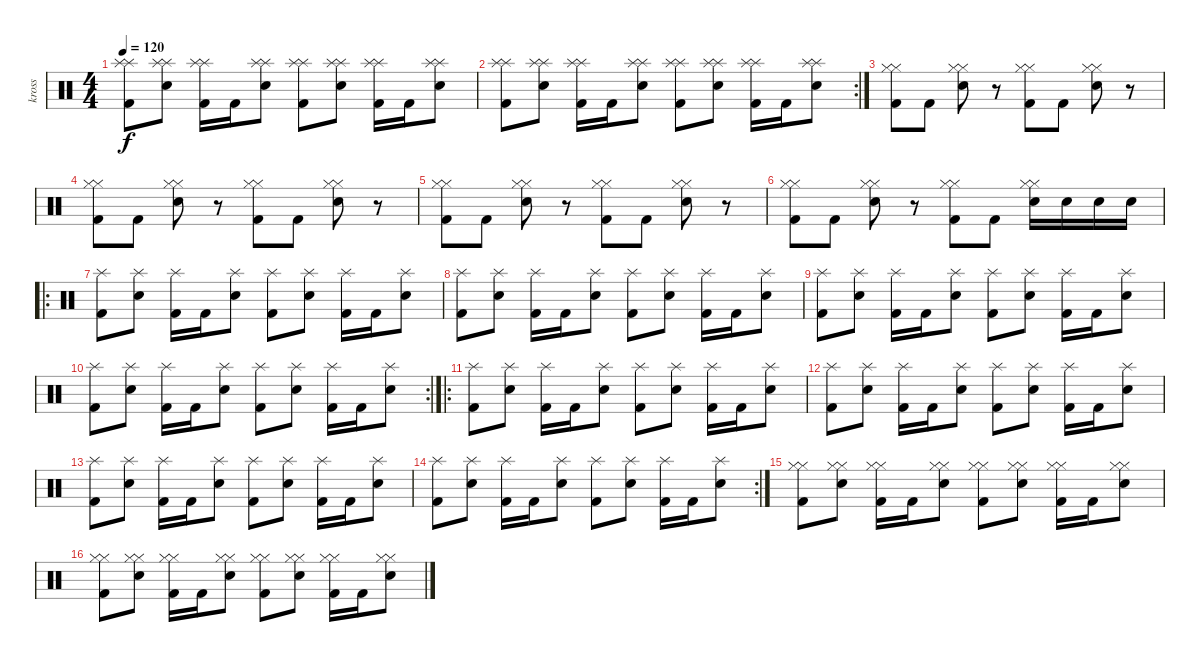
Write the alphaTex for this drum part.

\track ("kross" "kross") {instrument percussion}
\staff {score}
\articulation defaults
\ts (4 4)
\tempo 120
\clef neutral
\ks c
("Splash (hit)" "Splash (hit)" "Kick (hit) 2").8{dy f} ("Splash (hit)" "Splash (hit)" "Electric Snare (hit)").8 ("Splash (hit)" "Splash (hit)" "Kick (hit) 2").16 "Kick (hit) 2".16 ("Splash (hit)" "Splash (hit)" "Electric Snare (hit)").8 ("Splash (hit)" "Splash (hit)" "Kick (hit) 2").8 ("Splash (hit)" "Splash (hit)" "Electric Snare (hit)").8 ("Splash (hit)" "Splash (hit)" "Kick (hit) 2").16 "Kick (hit) 2".16 ("Splash (hit)" "Splash (hit)" "Electric Snare (hit)").8 |
\rc 2
("Splash (hit)" "Splash (hit)" "Kick (hit) 2").8 ("Splash (hit)" "Splash (hit)" "Electric Snare (hit)").8 ("Splash (hit)" "Splash (hit)" "Kick (hit) 2").16 "Kick (hit) 2".16 ("Splash (hit)" "Splash (hit)" "Electric Snare (hit)").8 ("Splash (hit)" "Splash (hit)" "Kick (hit) 2").8 ("Splash (hit)" "Splash (hit)" "Electric Snare (hit)").8 ("Splash (hit)" "Splash (hit)" "Kick (hit) 2").16 "Kick (hit) 2".16 ("Splash (hit)" "Splash (hit)" "Electric Snare (hit)").8 |
("Hi-Hat (closed)" "Hi-Hat (closed)" "Kick (hit) 2").8 "Kick (hit) 2".8 ("Hi-Hat (closed)" "Hi-Hat (closed)" "Electric Snare (hit)").8 r.8 ("Hi-Hat (closed)" "Hi-Hat (closed)" "Kick (hit) 2").8 "Kick (hit) 2".8 ("Hi-Hat (closed)" "Hi-Hat (closed)" "Electric Snare (hit)").8 r.8 |
("Hi-Hat (closed)" "Hi-Hat (closed)" "Kick (hit) 2").8 "Kick (hit) 2".8 ("Hi-Hat (closed)" "Hi-Hat (closed)" "Electric Snare (hit)").8 r.8 ("Hi-Hat (closed)" "Hi-Hat (closed)" "Kick (hit) 2").8 "Kick (hit) 2".8 ("Hi-Hat (closed)" "Hi-Hat (closed)" "Electric Snare (hit)").8 r.8 |
("Hi-Hat (closed)" "Hi-Hat (closed)" "Kick (hit) 2").8 "Kick (hit) 2".8 ("Hi-Hat (closed)" "Hi-Hat (closed)" "Electric Snare (hit)").8 r.8 ("Hi-Hat (closed)" "Hi-Hat (closed)" "Kick (hit) 2").8 "Kick (hit) 2".8 ("Hi-Hat (closed)" "Hi-Hat (closed)" "Electric Snare (hit)").8 r.8 |
("Hi-Hat (closed)" "Hi-Hat (closed)" "Kick (hit) 2").8 "Kick (hit) 2".8 ("Hi-Hat (closed)" "Hi-Hat (closed)" "Electric Snare (hit)").8 r.8 ("Hi-Hat (closed)" "Hi-Hat (closed)" "Kick (hit) 2").8 "Kick (hit) 2".8 ("Hi-Hat (closed)" "Hi-Hat (closed)" "Electric Snare (hit)").16 "Electric Snare (hit)".16 "Electric Snare (hit)".16 "Electric Snare (hit)".16 |
\ro
("Splash (hit)" "Kick (hit) 2").8 ("Splash (hit)" "Electric Snare (hit)").8 ("Splash (hit)" "Kick (hit) 2").16 "Kick (hit) 2".16 ("Splash (hit)" "Electric Snare (hit)").8 ("Splash (hit)" "Kick (hit) 2").8 ("Splash (hit)" "Electric Snare (hit)").8 ("Splash (hit)" "Kick (hit) 2").16 "Kick (hit) 2".16 ("Splash (hit)" "Electric Snare (hit)").8 |
("Splash (hit)" "Kick (hit) 2").8 ("Splash (hit)" "Electric Snare (hit)").8 ("Splash (hit)" "Kick (hit) 2").16 "Kick (hit) 2".16 ("Splash (hit)" "Electric Snare (hit)").8 ("Splash (hit)" "Kick (hit) 2").8 ("Splash (hit)" "Electric Snare (hit)").8 ("Splash (hit)" "Kick (hit) 2").16 "Kick (hit) 2".16 ("Splash (hit)" "Electric Snare (hit)").8 |
("Splash (hit)" "Kick (hit) 2").8 ("Splash (hit)" "Electric Snare (hit)").8 ("Splash (hit)" "Kick (hit) 2").16 "Kick (hit) 2".16 ("Splash (hit)" "Electric Snare (hit)").8 ("Splash (hit)" "Kick (hit) 2").8 ("Splash (hit)" "Electric Snare (hit)").8 ("Splash (hit)" "Kick (hit) 2").16 "Kick (hit) 2".16 ("Splash (hit)" "Electric Snare (hit)").8 |
\rc 2
("Splash (hit)" "Kick (hit) 2").8 ("Splash (hit)" "Electric Snare (hit)").8 ("Splash (hit)" "Kick (hit) 2").16 "Kick (hit) 2".16 ("Splash (hit)" "Electric Snare (hit)").8 ("Splash (hit)" "Kick (hit) 2").8 ("Splash (hit)" "Electric Snare (hit)").8 ("Splash (hit)" "Kick (hit) 2").16 "Kick (hit) 2".16 ("Splash (hit)" "Electric Snare (hit)").8 |
\ro
("Splash (hit)" "Kick (hit) 2").8 ("Splash (hit)" "Electric Snare (hit)").8 ("Splash (hit)" "Kick (hit) 2").16 "Kick (hit) 2".16 ("Splash (hit)" "Electric Snare (hit)").8 ("Splash (hit)" "Kick (hit) 2").8 ("Splash (hit)" "Electric Snare (hit)").8 ("Splash (hit)" "Kick (hit) 2").16 "Kick (hit) 2".16 ("Splash (hit)" "Electric Snare (hit)").8 |
("Splash (hit)" "Kick (hit) 2").8 ("Splash (hit)" "Electric Snare (hit)").8 ("Splash (hit)" "Kick (hit) 2").16 "Kick (hit) 2".16 ("Splash (hit)" "Electric Snare (hit)").8 ("Splash (hit)" "Kick (hit) 2").8 ("Splash (hit)" "Electric Snare (hit)").8 ("Splash (hit)" "Kick (hit) 2").16 "Kick (hit) 2".16 ("Splash (hit)" "Electric Snare (hit)").8 |
("Splash (hit)" "Kick (hit) 2").8 ("Splash (hit)" "Electric Snare (hit)").8 ("Splash (hit)" "Kick (hit) 2").16 "Kick (hit) 2".16 ("Splash (hit)" "Electric Snare (hit)").8 ("Splash (hit)" "Kick (hit) 2").8 ("Splash (hit)" "Electric Snare (hit)").8 ("Splash (hit)" "Kick (hit) 2").16 "Kick (hit) 2".16 ("Splash (hit)" "Electric Snare (hit)").8 |
\rc 2
("Splash (hit)" "Kick (hit) 2").8 ("Splash (hit)" "Electric Snare (hit)").8 ("Splash (hit)" "Kick (hit) 2").16 "Kick (hit) 2".16 ("Splash (hit)" "Electric Snare (hit)").8 ("Splash (hit)" "Kick (hit) 2").8 ("Splash (hit)" "Electric Snare (hit)").8 ("Splash (hit)" "Kick (hit) 2").16 "Kick (hit) 2".16 ("Splash (hit)" "Electric Snare (hit)").8 |
("Hi-Hat (closed)" "Hi-Hat (closed)" "Kick (hit) 2").8 ("Hi-Hat (closed)" "Hi-Hat (closed)" "Electric Snare (hit)").8 ("Hi-Hat (closed)" "Hi-Hat (closed)" "Kick (hit) 2").16 "Kick (hit) 2".16 ("Hi-Hat (closed)" "Hi-Hat (closed)" "Electric Snare (hit)").8 ("Hi-Hat (closed)" "Hi-Hat (closed)" "Kick (hit) 2").8 ("Hi-Hat (closed)" "Hi-Hat (closed)" "Electric Snare (hit)").8 ("Hi-Hat (closed)" "Hi-Hat (closed)" "Kick (hit) 2").16 "Kick (hit) 2".16 ("Hi-Hat (closed)" "Hi-Hat (closed)" "Electric Snare (hit)").8 |
("Hi-Hat (closed)" "Hi-Hat (closed)" "Kick (hit) 2").8 ("Hi-Hat (closed)" "Hi-Hat (closed)" "Electric Snare (hit)").8 ("Hi-Hat (closed)" "Hi-Hat (closed)" "Kick (hit) 2").16 "Kick (hit) 2".16 ("Hi-Hat (closed)" "Hi-Hat (closed)" "Electric Snare (hit)").8 ("Hi-Hat (closed)" "Hi-Hat (closed)" "Kick (hit) 2").8 ("Hi-Hat (closed)" "Hi-Hat (closed)" "Electric Snare (hit)").8 ("Hi-Hat (closed)" "Hi-Hat (closed)" "Kick (hit) 2").16 "Kick (hit) 2".16 ("Hi-Hat (closed)" "Hi-Hat (closed)" "Electric Snare (hit)").8
